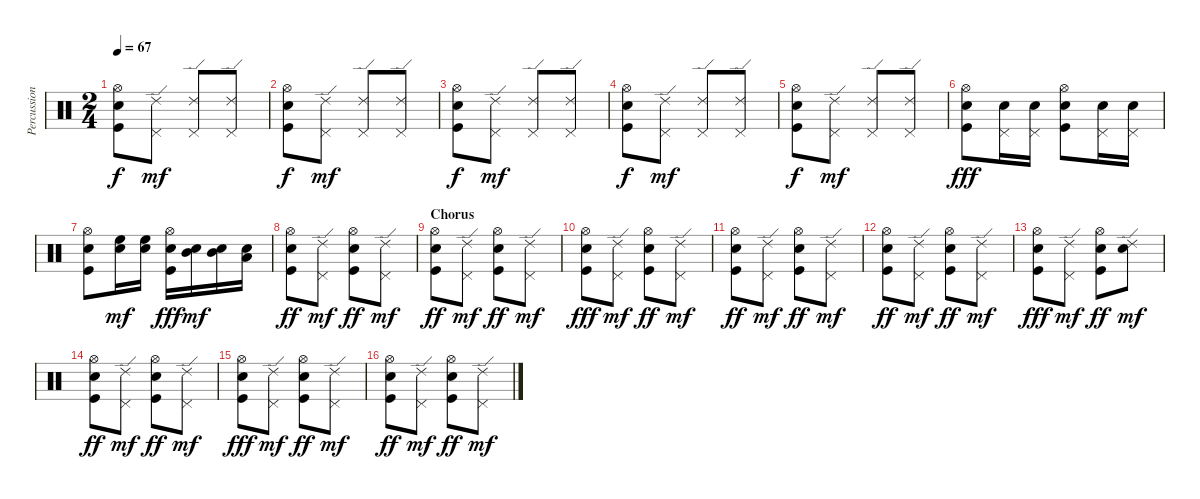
\track ("Percussions" "Percussion") {instrument percussion}
\staff {score}
\articulation defaults
\ts (2 4)
\tempo 67
\clef neutral
\ks c
("Hi-Hat (open)" "Snare (hit) 2" "Kick (hit)").8{dy f} ("Ride (edge) 2" "Pedal Hi-Hat (hit)").8{dy mf} ("Ride (edge) 2" "Pedal Hi-Hat (hit)").8 ("Ride (edge) 2" "Pedal Hi-Hat (hit)").8 |
("Hi-Hat (open)" "Snare (hit) 2" "Kick (hit)").8{dy f} ("Ride (edge) 2" "Pedal Hi-Hat (hit)").8{dy mf} ("Ride (edge) 2" "Pedal Hi-Hat (hit)").8 ("Ride (edge) 2" "Pedal Hi-Hat (hit)").8 |
("Hi-Hat (open)" "Snare (hit) 2" "Kick (hit)").8{dy f} ("Ride (edge) 2" "Pedal Hi-Hat (hit)").8{dy mf} ("Ride (edge) 2" "Pedal Hi-Hat (hit)").8 ("Ride (edge) 2" "Pedal Hi-Hat (hit)").8 |
("Hi-Hat (open)" "Snare (hit) 2" "Kick (hit)").8{dy f} ("Ride (edge) 2" "Pedal Hi-Hat (hit)").8{dy mf} ("Ride (edge) 2" "Pedal Hi-Hat (hit)").8 ("Ride (edge) 2" "Pedal Hi-Hat (hit)").8 |
("Hi-Hat (open)" "Snare (hit) 2" "Kick (hit)").8{dy f} ("Ride (edge) 2" "Pedal Hi-Hat (hit)").8{dy mf} ("Ride (edge) 2" "Pedal Hi-Hat (hit)").8 ("Ride (edge) 2" "Pedal Hi-Hat (hit)").8 |
("Hi-Hat (open)" "Snare (hit) 2" "Kick (hit)").8{dy fff volume 16} ("Pedal Hi-Hat (hit)" "Snare (hit) 2").16 ("Pedal Hi-Hat (hit)" "Snare (hit) 2").16 ("Hi-Hat (open)" "Snare (hit) 2" "Kick (hit)").8 ("Pedal Hi-Hat (hit)" "Snare (hit) 2").16 ("Pedal Hi-Hat (hit)" "Snare (hit) 2").16 |
("Hi-Hat (open)" "Snare (hit) 2" "Kick (hit)").8 ("Electric Snare (hit)" "High Floor Tom (hit)").16{dy mf balance 14} ("Electric Snare (hit)" "High Floor Tom (hit)").16 ("Hi-Hat (open)" "Electric Snare (hit)" "Kick (hit)").16{dy fff} ("Electric Snare (hit)" "Mid Tom (hit)").16{dy mf balance 2} ("Electric Snare (hit)" "Mid Tom (hit)").16 ("Electric Snare (hit)" "Low Tom (hit)").16 |
("Hi-Hat (open)" "Snare (hit) 2" "Kick (hit)").8{dy ff volume 12 balance 8} ("Ride (edge) 2" "Pedal Hi-Hat (hit)").8{dy mf} ("Hi-Hat (open)" "Snare (hit) 2" "Kick (hit)").8{dy ff} ("Ride (edge) 2" "Pedal Hi-Hat (hit)").8{dy mf} |
\section ("" "Chorus")
("Hi-Hat (open)" "Snare (hit) 2" "Kick (hit)").8{dy ff} ("Ride (edge) 2" "Pedal Hi-Hat (hit)").8{dy mf} ("Hi-Hat (open)" "Snare (hit) 2" "Kick (hit)").8{dy ff} ("Ride (edge) 2" "Pedal Hi-Hat (hit)").8{dy mf} |
("Hi-Hat (open)" "Electric Snare (hit)" "Kick (hit)").8{dy fff} ("Ride (edge) 2" "Pedal Hi-Hat (hit)").8{dy mf} ("Hi-Hat (open)" "Snare (hit) 2" "Kick (hit)").8{dy ff} ("Ride (edge) 2" "Pedal Hi-Hat (hit)").8{dy mf} |
("Hi-Hat (open)" "Snare (hit) 2" "Kick (hit)").8{dy ff} ("Ride (edge) 2" "Pedal Hi-Hat (hit)").8{dy mf} ("Hi-Hat (open)" "Snare (hit) 2" "Kick (hit)").8{dy ff} ("Ride (edge) 2" "Pedal Hi-Hat (hit)").8{dy mf} |
("Hi-Hat (open)" "Snare (hit) 2" "Kick (hit)").8{dy ff} ("Ride (edge) 2" "Pedal Hi-Hat (hit)").8{dy mf} ("Hi-Hat (open)" "Snare (hit) 2" "Kick (hit)").8{dy ff} ("Ride (edge) 2" "Pedal Hi-Hat (hit)").8{dy mf} |
("Hi-Hat (open)" "Electric Snare (hit)" "Kick (hit)").8{dy fff} ("Ride (edge) 2" "Pedal Hi-Hat (hit)").8{dy mf} ("Hi-Hat (open)" "Electric Snare (hit)" "Kick (hit)").8{dy ff} ("Ride (edge) 2" "Electric Snare (hit)").8{dy mf} |
("Hi-Hat (open)" "Snare (hit) 2" "Kick (hit)").8{dy ff} ("Ride (edge) 2" "Pedal Hi-Hat (hit)").8{dy mf} ("Hi-Hat (open)" "Snare (hit) 2" "Kick (hit)").8{dy ff} ("Ride (edge) 2" "Pedal Hi-Hat (hit)").8{dy mf} |
("Hi-Hat (open)" "Electric Snare (hit)" "Kick (hit)").8{dy fff} ("Ride (edge) 2" "Pedal Hi-Hat (hit)").8{dy mf} ("Hi-Hat (open)" "Snare (hit) 2" "Kick (hit)").8{dy ff} ("Ride (edge) 2" "Pedal Hi-Hat (hit)").8{dy mf} |
("Hi-Hat (open)" "Snare (hit) 2" "Kick (hit)").8{dy ff} ("Ride (edge) 2" "Pedal Hi-Hat (hit)").8{dy mf} ("Hi-Hat (open)" "Snare (hit) 2" "Kick (hit)").8{dy ff} ("Ride (edge) 2" "Pedal Hi-Hat (hit)").8{dy mf}
